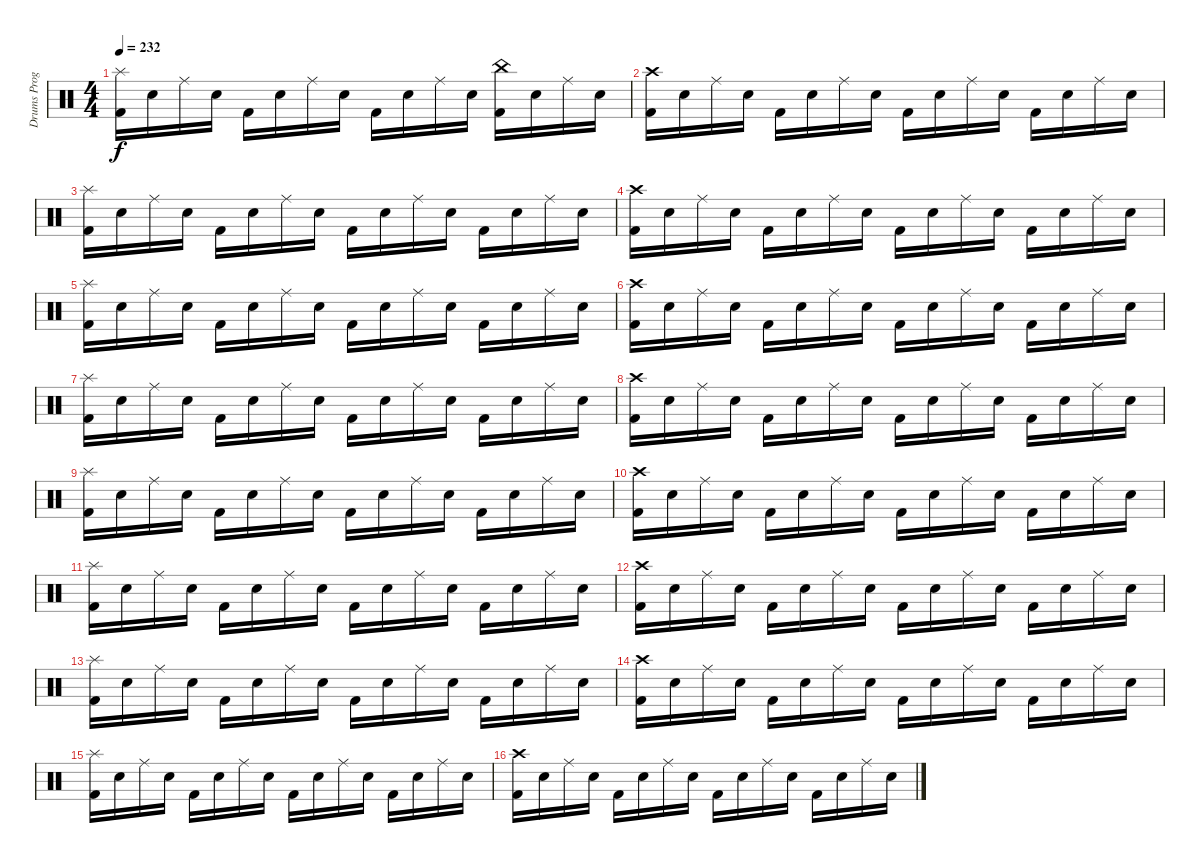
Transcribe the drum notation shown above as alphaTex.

\track ("Drums Programming" "Drums Prog") {instrument percussion}
\staff {score}
\articulation defaults
\ts (4 4)
\tempo 232
\clef neutral
\ks c
("Splash (hit)" "Kick (hit) 2").16{dy f} "Electric Snare (hit)".16 "Ride (middle)".16 "Electric Snare (hit)".16 "Kick (hit) 2".16 "Electric Snare (hit)".16 "Ride (middle)".16 "Electric Snare (hit)".16 "Kick (hit) 2".16 "Electric Snare (hit)".16 "Ride (middle)".16 "Electric Snare (hit)".16 ("China (hit)" "Kick (hit) 2").16 "Electric Snare (hit)".16 "Ride (middle)".16 "Electric Snare (hit)".16 |
("Crash high (hit)" "Kick (hit) 2").16 "Electric Snare (hit)".16 "Ride (middle)".16 "Electric Snare (hit)".16 "Kick (hit) 2".16 "Electric Snare (hit)".16 "Ride (middle)".16 "Electric Snare (hit)".16 "Kick (hit) 2".16 "Electric Snare (hit)".16 "Ride (middle)".16 "Electric Snare (hit)".16 "Kick (hit) 2".16 "Electric Snare (hit)".16 "Ride (middle)".16 "Electric Snare (hit)".16 |
("Splash (hit)" "Kick (hit) 2").16 "Electric Snare (hit)".16 "Ride (middle)".16 "Electric Snare (hit)".16 "Kick (hit) 2".16 "Electric Snare (hit)".16 "Ride (middle)".16 "Electric Snare (hit)".16 "Kick (hit) 2".16 "Electric Snare (hit)".16 "Ride (middle)".16 "Electric Snare (hit)".16 "Kick (hit) 2".16 "Electric Snare (hit)".16 "Ride (middle)".16 "Electric Snare (hit)".16 |
("Crash high (hit)" "Kick (hit) 2").16 "Electric Snare (hit)".16 "Ride (middle)".16 "Electric Snare (hit)".16 "Kick (hit) 2".16 "Electric Snare (hit)".16 "Ride (middle)".16 "Electric Snare (hit)".16 "Kick (hit) 2".16 "Electric Snare (hit)".16 "Ride (middle)".16 "Electric Snare (hit)".16 "Kick (hit) 2".16 "Electric Snare (hit)".16 "Ride (middle)".16 "Electric Snare (hit)".16 |
("Splash (hit)" "Kick (hit) 2").16 "Electric Snare (hit)".16 "Ride (middle)".16 "Electric Snare (hit)".16 "Kick (hit) 2".16 "Electric Snare (hit)".16 "Ride (middle)".16 "Electric Snare (hit)".16 "Kick (hit) 2".16 "Electric Snare (hit)".16 "Ride (middle)".16 "Electric Snare (hit)".16 "Kick (hit) 2".16 "Electric Snare (hit)".16 "Ride (middle)".16 "Electric Snare (hit)".16 |
("Crash high (hit)" "Kick (hit) 2").16 "Electric Snare (hit)".16 "Ride (middle)".16 "Electric Snare (hit)".16 "Kick (hit) 2".16 "Electric Snare (hit)".16 "Ride (middle)".16 "Electric Snare (hit)".16 "Kick (hit) 2".16 "Electric Snare (hit)".16 "Ride (middle)".16 "Electric Snare (hit)".16 "Kick (hit) 2".16 "Electric Snare (hit)".16 "Ride (middle)".16 "Electric Snare (hit)".16 |
("Splash (hit)" "Kick (hit) 2").16 "Electric Snare (hit)".16 "Ride (middle)".16 "Electric Snare (hit)".16 "Kick (hit) 2".16 "Electric Snare (hit)".16 "Ride (middle)".16 "Electric Snare (hit)".16 "Kick (hit) 2".16 "Electric Snare (hit)".16 "Ride (middle)".16 "Electric Snare (hit)".16 "Kick (hit) 2".16 "Electric Snare (hit)".16 "Ride (middle)".16 "Electric Snare (hit)".16 |
("Crash high (hit)" "Kick (hit) 2").16 "Electric Snare (hit)".16 "Ride (middle)".16 "Electric Snare (hit)".16 "Kick (hit) 2".16 "Electric Snare (hit)".16 "Ride (middle)".16 "Electric Snare (hit)".16 "Kick (hit) 2".16 "Electric Snare (hit)".16 "Ride (middle)".16 "Electric Snare (hit)".16 "Kick (hit) 2".16 "Electric Snare (hit)".16 "Ride (middle)".16 "Electric Snare (hit)".16 |
("Splash (hit)" "Kick (hit) 2").16 "Electric Snare (hit)".16 "Ride (middle)".16 "Electric Snare (hit)".16 "Kick (hit) 2".16 "Electric Snare (hit)".16 "Ride (middle)".16 "Electric Snare (hit)".16 "Kick (hit) 2".16 "Electric Snare (hit)".16 "Ride (middle)".16 "Electric Snare (hit)".16 "Kick (hit) 2".16 "Electric Snare (hit)".16 "Ride (middle)".16 "Electric Snare (hit)".16 |
("Crash high (hit)" "Kick (hit) 2").16 "Electric Snare (hit)".16 "Ride (middle)".16 "Electric Snare (hit)".16 "Kick (hit) 2".16 "Electric Snare (hit)".16 "Ride (middle)".16 "Electric Snare (hit)".16 "Kick (hit) 2".16 "Electric Snare (hit)".16 "Ride (middle)".16 "Electric Snare (hit)".16 "Kick (hit) 2".16 "Electric Snare (hit)".16 "Ride (middle)".16 "Electric Snare (hit)".16 |
("Splash (hit)" "Kick (hit) 2").16 "Electric Snare (hit)".16 "Ride (middle)".16 "Electric Snare (hit)".16 "Kick (hit) 2".16 "Electric Snare (hit)".16 "Ride (middle)".16 "Electric Snare (hit)".16 "Kick (hit) 2".16 "Electric Snare (hit)".16 "Ride (middle)".16 "Electric Snare (hit)".16 "Kick (hit) 2".16 "Electric Snare (hit)".16 "Ride (middle)".16 "Electric Snare (hit)".16 |
("Crash high (hit)" "Kick (hit) 2").16 "Electric Snare (hit)".16 "Ride (middle)".16 "Electric Snare (hit)".16 "Kick (hit) 2".16 "Electric Snare (hit)".16 "Ride (middle)".16 "Electric Snare (hit)".16 "Kick (hit) 2".16 "Electric Snare (hit)".16 "Ride (middle)".16 "Electric Snare (hit)".16 "Kick (hit) 2".16 "Electric Snare (hit)".16 "Ride (middle)".16 "Electric Snare (hit)".16 |
("Splash (hit)" "Kick (hit) 2").16 "Electric Snare (hit)".16 "Ride (middle)".16 "Electric Snare (hit)".16 "Kick (hit) 2".16 "Electric Snare (hit)".16 "Ride (middle)".16 "Electric Snare (hit)".16 "Kick (hit) 2".16 "Electric Snare (hit)".16 "Ride (middle)".16 "Electric Snare (hit)".16 "Kick (hit) 2".16 "Electric Snare (hit)".16 "Ride (middle)".16 "Electric Snare (hit)".16 |
("Crash high (hit)" "Kick (hit) 2").16 "Electric Snare (hit)".16 "Ride (middle)".16 "Electric Snare (hit)".16 "Kick (hit) 2".16 "Electric Snare (hit)".16 "Ride (middle)".16 "Electric Snare (hit)".16 "Kick (hit) 2".16 "Electric Snare (hit)".16 "Ride (middle)".16 "Electric Snare (hit)".16 "Kick (hit) 2".16 "Electric Snare (hit)".16 "Ride (middle)".16 "Electric Snare (hit)".16 |
("Splash (hit)" "Kick (hit) 2").16 "Electric Snare (hit)".16 "Ride (middle)".16 "Electric Snare (hit)".16 "Kick (hit) 2".16 "Electric Snare (hit)".16 "Ride (middle)".16 "Electric Snare (hit)".16 "Kick (hit) 2".16 "Electric Snare (hit)".16 "Ride (middle)".16 "Electric Snare (hit)".16 "Kick (hit) 2".16 "Electric Snare (hit)".16 "Ride (middle)".16 "Electric Snare (hit)".16 |
("Crash high (hit)" "Kick (hit) 2").16 "Electric Snare (hit)".16 "Ride (middle)".16 "Electric Snare (hit)".16 "Kick (hit) 2".16 "Electric Snare (hit)".16 "Ride (middle)".16 "Electric Snare (hit)".16 "Kick (hit) 2".16 "Electric Snare (hit)".16 "Ride (middle)".16 "Electric Snare (hit)".16 "Kick (hit) 2".16 "Electric Snare (hit)".16 "Ride (middle)".16 "Electric Snare (hit)".16
